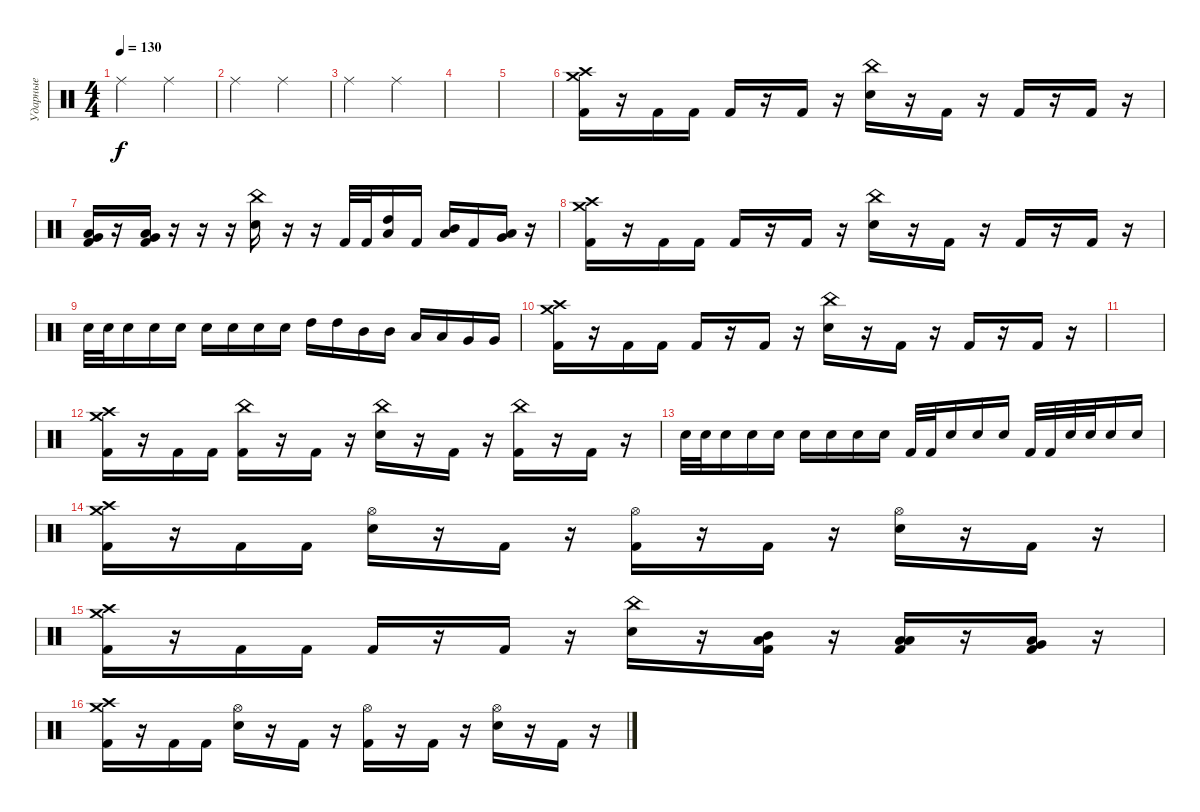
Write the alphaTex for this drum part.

\track ("Ударные" "Ударные") {instrument percussion}
\staff {score}
\articulation defaults
\ts (4 4)
\tempo 130
\clef neutral
\ks c "Ride (middle)".2{dy f} "Ride (middle)".2
|
"Ride (middle)".2 "Ride (middle)".2 |
"Ride (middle)".2 "Ride (middle)".2 |
|
|
("Kick (hit) 2" "Crash high (hit)" "Crash medium (hit)").16 r.16 "Kick (hit) 2".16 "Kick (hit) 2".16 "Kick (hit) 2".16 r.16 "Kick (hit) 2".16 r.16 ("Electric Snare (hit)" "China (hit)").16 r.16 "Kick (hit) 2".16 r.16 "Kick (hit) 2".16 r.16 "Kick (hit) 2".16 r.16 |
("Kick (hit) 2" "Low Floor Tom (hit)" "Very Low Tom (hit)").16 r.16 ("Kick (hit) 2" "Low Floor Tom (hit)" "Very Low Tom (hit)").16 r.16 r.16 r.16 ("Electric Snare (hit)" "China (hit)").16 r.16 r.16 "Kick (hit) 2".32 "Kick (hit) 2".32 ("Low Tom (hit)" "High Tom (hit)").16 "Kick (hit) 2".16 ("Low Tom (hit)" "Mid Tom (hit)").16 "Kick (hit) 2".16 ("Very Low Tom (hit)" "Low Tom (hit)").16 r.16 |
("Kick (hit) 2" "Crash high (hit)" "Crash medium (hit)").16 r.16 "Kick (hit) 2".16 "Kick (hit) 2".16 "Kick (hit) 2".16 r.16 "Kick (hit) 2".16 r.16 ("Electric Snare (hit)" "China (hit)").16 r.16 "Kick (hit) 2".16 r.16 "Kick (hit) 2".16 r.16 "Kick (hit) 2".16 r.16 |
"Electric Snare (hit)".32 "Electric Snare (hit)".32 "Electric Snare (hit)".16 "Electric Snare (hit)".16 "Electric Snare (hit)".16 "Electric Snare (hit)".16 "Electric Snare (hit)".16 "Electric Snare (hit)".16 "Electric Snare (hit)".16 "High Tom (hit)".16 "High Tom (hit)".16 "Mid Tom (hit)".16 "Mid Tom (hit)".16 "Low Tom (hit)".16 "Low Tom (hit)".16 "Very Low Tom (hit)".16 "Very Low Tom (hit)".16 |
("Kick (hit) 2" "Crash high (hit)" "Crash medium (hit)").16 r.16 "Kick (hit) 2".16 "Kick (hit) 2".16 "Kick (hit) 2".16 r.16 "Kick (hit) 2".16 r.16 ("Electric Snare (hit)" "China (hit)").16 r.16 "Kick (hit) 2".16 r.16 "Kick (hit) 2".16 r.16 "Kick (hit) 2".16 r.16 |
|
("Kick (hit) 2" "Crash high (hit)" "Crash medium (hit)").16 r.16 "Kick (hit) 2".16 "Kick (hit) 2".16 ("Kick (hit) 2" "China (hit)").16 r.16 "Kick (hit) 2".16 r.16 ("Electric Snare (hit)" "China (hit)").16 r.16 "Kick (hit) 2".16 r.16 ("Kick (hit) 2" "China (hit)").16 r.16 "Kick (hit) 2".16 r.16 |
"Electric Snare (hit)".32 "Electric Snare (hit)".32 "Electric Snare (hit)".16 "Electric Snare (hit)".16 "Electric Snare (hit)".16 "Electric Snare (hit)".16 "Electric Snare (hit)".16 "Electric Snare (hit)".16 "Electric Snare (hit)".16 "Kick (hit) 2".32 "Kick (hit) 2".32 "Electric Snare (hit)".16 "Electric Snare (hit)".16 "Electric Snare (hit)".16 "Kick (hit) 2".32 "Kick (hit) 2".32 "Electric Snare (hit)".32 "Electric Snare (hit)".32 "Electric Snare (hit)".16 "Electric Snare (hit)".16 |
("Kick (hit) 2" "Crash high (hit)" "Crash medium (hit)").16 r.16 "Kick (hit) 2".16 "Kick (hit) 2".16 ("Electric Snare (hit)" "Hi-Hat (open)").16 r.16 "Kick (hit) 2".16 r.16 ("Kick (hit) 2" "Hi-Hat (open)").16 r.16 "Kick (hit) 2".16 r.16 ("Electric Snare (hit)" "Hi-Hat (open)").16 r.16 "Kick (hit) 2".16 r.16 |
("Kick (hit) 2" "Crash high (hit)" "Crash medium (hit)").16 r.16 "Kick (hit) 2".16 "Kick (hit) 2".16 "Kick (hit) 2".16 r.16 "Kick (hit) 2".16 r.16 ("Electric Snare (hit)" "China (hit)").16 r.16 ("Kick (hit) 2" "Low Floor Tom (hit)" "Mid Tom (hit)").16 r.16 ("Kick (hit) 2" "Low Floor Tom (hit)" "Low Tom (hit)").16 r.16 ("Kick (hit) 2" "Low Floor Tom (hit)" "Very Low Tom (hit)").16 r.16 |
("Kick (hit) 2" "Crash high (hit)" "Crash medium (hit)").16 r.16 "Kick (hit) 2".16 "Kick (hit) 2".16 ("Electric Snare (hit)" "Hi-Hat (open)").16 r.16 "Kick (hit) 2".16 r.16 ("Kick (hit) 2" "Hi-Hat (open)").16 r.16 "Kick (hit) 2".16 r.16 ("Electric Snare (hit)" "Hi-Hat (open)").16 r.16 "Kick (hit) 2".16 r.16
